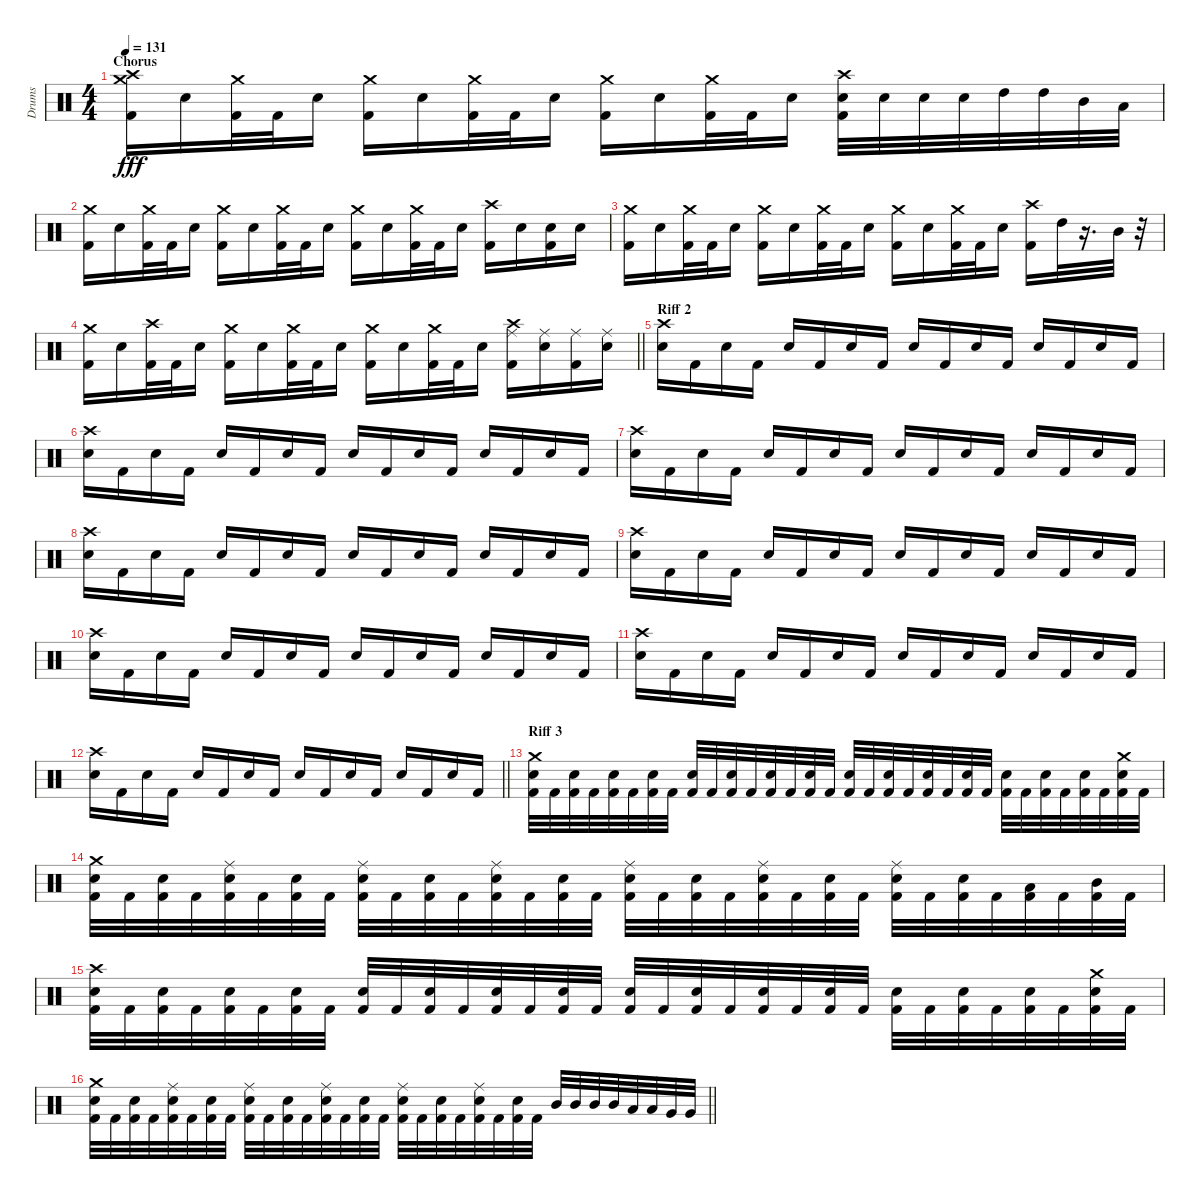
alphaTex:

\track ("Drums" "Drums") {instrument percussion}
\staff {score}
\articulation defaults
\ts (4 4)
\section ("" "Chorus")
\tempo 131
\clef neutral
\ks c
("Crash high (hit)" "Crash medium (hit)" "Kick (hit) 2").16{dy fff} "Snare (hit) 2".16 ("Crash medium (hit)" "Kick (hit) 2").32 "Kick (hit) 2".32 "Snare (hit) 2".16 ("Crash medium (hit)" "Kick (hit) 2").16 "Snare (hit) 2".16 ("Crash medium (hit)" "Kick (hit) 2").32 "Kick (hit) 2".32 "Snare (hit) 2".16 ("Crash medium (hit)" "Kick (hit) 2").16 "Snare (hit) 2".16 ("Crash medium (hit)" "Kick (hit) 2").32 "Kick (hit) 2".32 "Snare (hit) 2".16 ("Crash high (hit)" "Kick (hit) 2" "Snare (hit) 2").32 "Snare (hit) 2".32 "Snare (hit) 2".32 "Snare (hit) 2".32 "High Tom (hit)".32 "High Tom (hit)".32 "Mid Tom (hit)".32 "Low Tom (hit)".32 |
("Crash medium (hit)" "Kick (hit) 2").16 "Snare (hit) 2".16 ("Crash medium (hit)" "Kick (hit) 2").32 "Kick (hit) 2".32 "Snare (hit) 2".16 ("Crash medium (hit)" "Kick (hit) 2").16 "Snare (hit) 2".16 ("Crash medium (hit)" "Kick (hit) 2").32 "Kick (hit) 2".32 "Snare (hit) 2".16 ("Crash medium (hit)" "Kick (hit) 2").16 "Snare (hit) 2".16 ("Crash medium (hit)" "Kick (hit) 2").32 "Kick (hit) 2".32 "Snare (hit) 2".16 ("Crash high (hit)" "Kick (hit) 2").16 "Snare (hit) 2".16 ("Kick (hit) 2" "Snare (hit) 2").16 "Snare (hit) 2".16 |
("Crash medium (hit)" "Kick (hit) 2").16 "Snare (hit) 2".16 ("Crash medium (hit)" "Kick (hit) 2").32 "Kick (hit) 2".32 "Snare (hit) 2".16 ("Crash medium (hit)" "Kick (hit) 2").16 "Snare (hit) 2".16 ("Crash medium (hit)" "Kick (hit) 2").32 "Kick (hit) 2".32 "Snare (hit) 2".16 ("Crash medium (hit)" "Kick (hit) 2").16 "Snare (hit) 2".16 ("Crash medium (hit)" "Kick (hit) 2").32 "Kick (hit) 2".32 "Snare (hit) 2".16 ("Crash high (hit)" "Kick (hit) 2").16 "High Tom (hit)".32 r.16{d} "Mid Tom (hit)".32 r.32 |
\barLineRight lightlight
("Crash medium (hit)" "Kick (hit) 2").16 "Snare (hit) 2".16 ("Crash high (hit)" "Kick (hit) 2").32 "Kick (hit) 2".32 "Snare (hit) 2".16 ("Crash medium (hit)" "Kick (hit) 2").16 "Snare (hit) 2".16 ("Crash medium (hit)" "Kick (hit) 2").32 "Kick (hit) 2".32 "Snare (hit) 2".16 ("Crash medium (hit)" "Kick (hit) 2").16 "Snare (hit) 2".16 ("Crash medium (hit)" "Kick (hit) 2").32 "Kick (hit) 2".32 "Snare (hit) 2".16 ("Crash high (hit)" "Kick (hit) 2" "Ride (middle)").16 ("Snare (hit) 2" "Ride (middle)").16 ("Kick (hit) 2" "Ride (middle)").16 ("Snare (hit) 2" "Ride (middle)").16 |
\section ("" "Riff 2")
("Crash high (hit)" "Snare (hit) 2").16 "Kick (hit) 2".16 "Snare (hit) 2".16 "Kick (hit) 2".16 "Snare (hit) 2".16 "Kick (hit) 2".16 "Snare (hit) 2".16 "Kick (hit) 2".16 "Snare (hit) 2".16 "Kick (hit) 2".16 "Snare (hit) 2".16 "Kick (hit) 2".16 "Snare (hit) 2".16 "Kick (hit) 2".16 "Snare (hit) 2".16 "Kick (hit) 2".16 |
("Crash high (hit)" "Snare (hit) 2").16 "Kick (hit) 2".16 "Snare (hit) 2".16 "Kick (hit) 2".16 "Snare (hit) 2".16 "Kick (hit) 2".16 "Snare (hit) 2".16 "Kick (hit) 2".16 "Snare (hit) 2".16 "Kick (hit) 2".16 "Snare (hit) 2".16 "Kick (hit) 2".16 "Snare (hit) 2".16 "Kick (hit) 2".16 "Snare (hit) 2".16 "Kick (hit) 2".16 |
("Crash high (hit)" "Snare (hit) 2").16 "Kick (hit) 2".16 "Snare (hit) 2".16 "Kick (hit) 2".16 "Snare (hit) 2".16 "Kick (hit) 2".16 "Snare (hit) 2".16 "Kick (hit) 2".16 "Snare (hit) 2".16 "Kick (hit) 2".16 "Snare (hit) 2".16 "Kick (hit) 2".16 "Snare (hit) 2".16 "Kick (hit) 2".16 "Snare (hit) 2".16 "Kick (hit) 2".16 |
("Crash high (hit)" "Snare (hit) 2").16 "Kick (hit) 2".16 "Snare (hit) 2".16 "Kick (hit) 2".16 "Snare (hit) 2".16 "Kick (hit) 2".16 "Snare (hit) 2".16 "Kick (hit) 2".16 "Snare (hit) 2".16 "Kick (hit) 2".16 "Snare (hit) 2".16 "Kick (hit) 2".16 "Snare (hit) 2".16 "Kick (hit) 2".16 "Snare (hit) 2".16 "Kick (hit) 2".16 |
("Crash high (hit)" "Snare (hit) 2").16 "Kick (hit) 2".16 "Snare (hit) 2".16 "Kick (hit) 2".16 "Snare (hit) 2".16 "Kick (hit) 2".16 "Snare (hit) 2".16 "Kick (hit) 2".16 "Snare (hit) 2".16 "Kick (hit) 2".16 "Snare (hit) 2".16 "Kick (hit) 2".16 "Snare (hit) 2".16 "Kick (hit) 2".16 "Snare (hit) 2".16 "Kick (hit) 2".16 |
("Crash high (hit)" "Snare (hit) 2").16 "Kick (hit) 2".16 "Snare (hit) 2".16 "Kick (hit) 2".16 "Snare (hit) 2".16 "Kick (hit) 2".16 "Snare (hit) 2".16 "Kick (hit) 2".16 "Snare (hit) 2".16 "Kick (hit) 2".16 "Snare (hit) 2".16 "Kick (hit) 2".16 "Snare (hit) 2".16 "Kick (hit) 2".16 "Snare (hit) 2".16 "Kick (hit) 2".16 |
("Crash high (hit)" "Snare (hit) 2").16 "Kick (hit) 2".16 "Snare (hit) 2".16 "Kick (hit) 2".16 "Snare (hit) 2".16 "Kick (hit) 2".16 "Snare (hit) 2".16 "Kick (hit) 2".16 "Snare (hit) 2".16 "Kick (hit) 2".16 "Snare (hit) 2".16 "Kick (hit) 2".16 "Snare (hit) 2".16 "Kick (hit) 2".16 "Snare (hit) 2".16 "Kick (hit) 2".16 |
\barLineRight lightlight
("Crash high (hit)" "Snare (hit) 2").16 "Kick (hit) 2".16 "Snare (hit) 2".16 "Kick (hit) 2".16 "Snare (hit) 2".16 "Kick (hit) 2".16 "Snare (hit) 2".16 "Kick (hit) 2".16 "Snare (hit) 2".16 "Kick (hit) 2".16 "Snare (hit) 2".16 "Kick (hit) 2".16 "Snare (hit) 2".16 "Kick (hit) 2".16 "Snare (hit) 2".16 "Kick (hit) 2".16 |
\section ("" "Riff 3")
("Crash medium (hit)" "Kick (hit) 2" "Snare (hit) 2").32 "Kick (hit) 2".32 ("Kick (hit) 2" "Snare (hit) 2").32 "Kick (hit) 2".32 ("Kick (hit) 2" "Snare (hit) 2").32 "Kick (hit) 2".32 ("Kick (hit) 2" "Snare (hit) 2").32 "Kick (hit) 2".32 ("Kick (hit) 2" "Snare (hit) 2").32 "Kick (hit) 2".32 ("Kick (hit) 2" "Snare (hit) 2").32 "Kick (hit) 2".32 ("Kick (hit) 2" "Snare (hit) 2").32 "Kick (hit) 2".32 ("Kick (hit) 2" "Snare (hit) 2").32 "Kick (hit) 2".32 ("Kick (hit) 2" "Snare (hit) 2").32 "Kick (hit) 2".32 ("Kick (hit) 2" "Snare (hit) 2").32 "Kick (hit) 2".32 ("Kick (hit) 2" "Snare (hit) 2").32 "Kick (hit) 2".32 ("Kick (hit) 2" "Snare (hit) 2").32 "Kick (hit) 2".32 ("Kick (hit) 2" "Snare (hit) 2").32 "Kick (hit) 2".32 ("Kick (hit) 2" "Snare (hit) 2").32 "Kick (hit) 2".32 ("Kick (hit) 2" "Snare (hit) 2").32 "Kick (hit) 2".32 ("Crash medium (hit)" "Kick (hit) 2" "Snare (hit) 2").32 "Kick (hit) 2".32 |
("Crash medium (hit)" "Kick (hit) 2" "Snare (hit) 2").32 "Kick (hit) 2".32 ("Kick (hit) 2" "Snare (hit) 2").32 "Kick (hit) 2".32 ("Kick (hit) 2" "Snare (hit) 2" "Ride (middle)").32 "Kick (hit) 2".32 ("Kick (hit) 2" "Snare (hit) 2").32 "Kick (hit) 2".32 ("Kick (hit) 2" "Snare (hit) 2" "Ride (middle)").32 "Kick (hit) 2".32 ("Kick (hit) 2" "Snare (hit) 2").32 "Kick (hit) 2".32 ("Kick (hit) 2" "Snare (hit) 2" "Ride (middle)").32 "Kick (hit) 2".32 ("Kick (hit) 2" "Snare (hit) 2").32 "Kick (hit) 2".32 ("Kick (hit) 2" "Snare (hit) 2" "Ride (middle)").32 "Kick (hit) 2".32 ("Kick (hit) 2" "Snare (hit) 2").32 "Kick (hit) 2".32 ("Kick (hit) 2" "Snare (hit) 2" "Ride (middle)").32 "Kick (hit) 2".32 ("Kick (hit) 2" "Snare (hit) 2").32 "Kick (hit) 2".32 ("Kick (hit) 2" "Snare (hit) 2" "Ride (middle)").32 "Kick (hit) 2".32 ("Kick (hit) 2" "Snare (hit) 2").32 "Kick (hit) 2".32 ("Kick (hit) 2" "Low Tom (hit)").32 "Kick (hit) 2".32 ("Kick (hit) 2" "Mid Tom (hit)").32 "Kick (hit) 2".32 |
("Crash high (hit)" "Kick (hit) 2" "Snare (hit) 2").32 "Kick (hit) 2".32 ("Kick (hit) 2" "Snare (hit) 2").32 "Kick (hit) 2".32 ("Kick (hit) 2" "Snare (hit) 2").32 "Kick (hit) 2".32 ("Kick (hit) 2" "Snare (hit) 2").32 "Kick (hit) 2".32 ("Kick (hit) 2" "Snare (hit) 2").32 "Kick (hit) 2".32 ("Kick (hit) 2" "Snare (hit) 2").32 "Kick (hit) 2".32 ("Kick (hit) 2" "Snare (hit) 2").32 "Kick (hit) 2".32 ("Kick (hit) 2" "Snare (hit) 2").32 "Kick (hit) 2".32 ("Kick (hit) 2" "Snare (hit) 2").32 "Kick (hit) 2".32 ("Kick (hit) 2" "Snare (hit) 2").32 "Kick (hit) 2".32 ("Kick (hit) 2" "Snare (hit) 2").32 "Kick (hit) 2".32 ("Kick (hit) 2" "Snare (hit) 2").32 "Kick (hit) 2".32 ("Kick (hit) 2" "Snare (hit) 2").32 "Kick (hit) 2".32 ("Kick (hit) 2" "Snare (hit) 2").32 "Kick (hit) 2".32 ("Kick (hit) 2" "Snare (hit) 2").32 "Kick (hit) 2".32 ("Crash medium (hit)" "Kick (hit) 2" "Snare (hit) 2").32 "Kick (hit) 2".32 |
\barLineRight lightlight
("Crash medium (hit)" "Kick (hit) 2" "Snare (hit) 2").32 "Kick (hit) 2".32 ("Kick (hit) 2" "Snare (hit) 2").32 "Kick (hit) 2".32 ("Kick (hit) 2" "Snare (hit) 2" "Ride (middle)").32 "Kick (hit) 2".32 ("Kick (hit) 2" "Snare (hit) 2").32 "Kick (hit) 2".32 ("Kick (hit) 2" "Snare (hit) 2" "Ride (middle)").32 "Kick (hit) 2".32 ("Kick (hit) 2" "Snare (hit) 2").32 "Kick (hit) 2".32 ("Kick (hit) 2" "Snare (hit) 2" "Ride (middle)").32 "Kick (hit) 2".32 ("Kick (hit) 2" "Snare (hit) 2").32 "Kick (hit) 2".32 ("Kick (hit) 2" "Snare (hit) 2" "Ride (middle)").32 "Kick (hit) 2".32 ("Kick (hit) 2" "Snare (hit) 2").32 "Kick (hit) 2".32 ("Kick (hit) 2" "Snare (hit) 2" "Ride (middle)").32 "Kick (hit) 2".32 ("Kick (hit) 2" "Snare (hit) 2").32 "Kick (hit) 2".32 "Mid Tom (hit)".32 "Mid Tom (hit)".32 "Mid Tom (hit)".32 "Mid Tom (hit)".32 "Low Tom (hit)".32 "Low Tom (hit)".32 "Very Low Tom (hit)".32 "Very Low Tom (hit)".32
